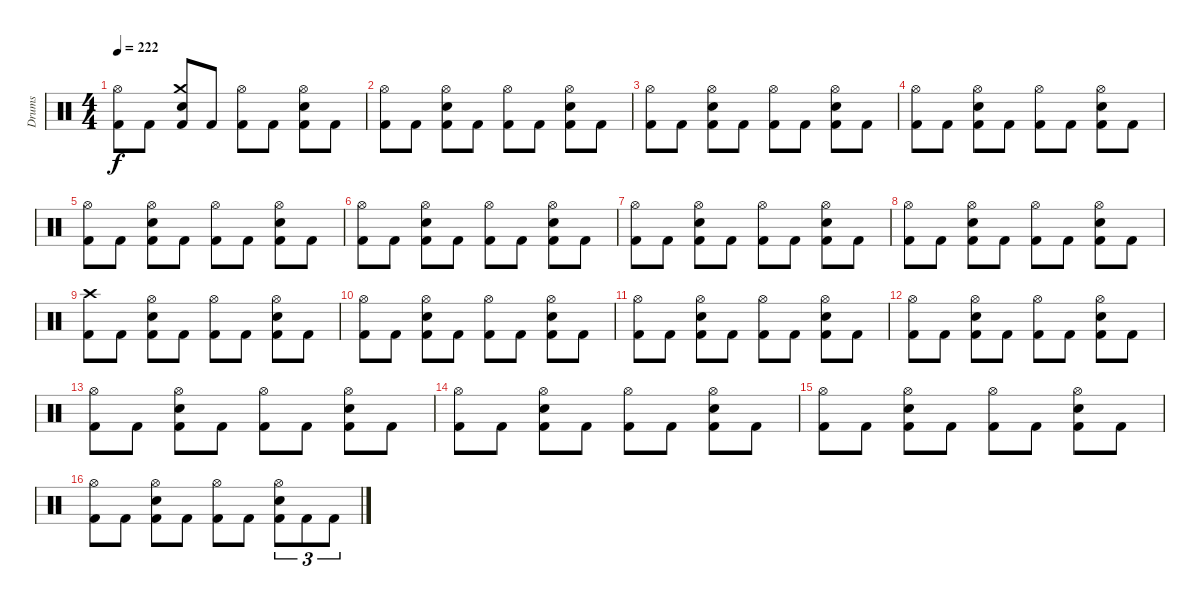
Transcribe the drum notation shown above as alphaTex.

\track ("Drums" "Drums") {instrument percussion}
\staff {score}
\articulation defaults
\ts (4 4)
\tempo 222
\clef neutral
\ks c
("Hi-Hat (open)" "Kick (hit) 2").8{dy f} "Kick (hit) 2".8 ("Crash medium (hit)" "Electric Snare (hit)" "Kick (hit) 2").8 "Kick (hit) 2".8 ("Hi-Hat (open)" "Kick (hit) 2").8 "Kick (hit) 2".8 ("Hi-Hat (open)" "Electric Snare (hit)" "Kick (hit) 2").8 "Kick (hit) 2".8 |
("Hi-Hat (open)" "Kick (hit) 2").8 "Kick (hit) 2".8 ("Hi-Hat (open)" "Electric Snare (hit)" "Kick (hit) 2").8 "Kick (hit) 2".8 ("Hi-Hat (open)" "Kick (hit) 2").8 "Kick (hit) 2".8 ("Hi-Hat (open)" "Electric Snare (hit)" "Kick (hit) 2").8 "Kick (hit) 2".8 |
("Hi-Hat (open)" "Kick (hit) 2").8 "Kick (hit) 2".8 ("Hi-Hat (open)" "Electric Snare (hit)" "Kick (hit) 2").8 "Kick (hit) 2".8 ("Hi-Hat (open)" "Kick (hit) 2").8 "Kick (hit) 2".8 ("Hi-Hat (open)" "Electric Snare (hit)" "Kick (hit) 2").8 "Kick (hit) 2".8 |
("Hi-Hat (open)" "Kick (hit) 2").8 "Kick (hit) 2".8 ("Hi-Hat (open)" "Electric Snare (hit)" "Kick (hit) 2").8 "Kick (hit) 2".8 ("Hi-Hat (open)" "Kick (hit) 2").8 "Kick (hit) 2".8 ("Hi-Hat (open)" "Electric Snare (hit)" "Kick (hit) 2").8 "Kick (hit) 2".8 |
("Hi-Hat (open)" "Kick (hit) 2").8 "Kick (hit) 2".8 ("Hi-Hat (open)" "Electric Snare (hit)" "Kick (hit) 2").8 "Kick (hit) 2".8 ("Hi-Hat (open)" "Kick (hit) 2").8 "Kick (hit) 2".8 ("Hi-Hat (open)" "Electric Snare (hit)" "Kick (hit) 2").8 "Kick (hit) 2".8 |
("Hi-Hat (open)" "Kick (hit) 2").8 "Kick (hit) 2".8 ("Hi-Hat (open)" "Electric Snare (hit)" "Kick (hit) 2").8 "Kick (hit) 2".8 ("Hi-Hat (open)" "Kick (hit) 2").8 "Kick (hit) 2".8 ("Hi-Hat (open)" "Electric Snare (hit)" "Kick (hit) 2").8 "Kick (hit) 2".8 |
("Hi-Hat (open)" "Kick (hit) 2").8 "Kick (hit) 2".8 ("Hi-Hat (open)" "Electric Snare (hit)" "Kick (hit) 2").8 "Kick (hit) 2".8 ("Hi-Hat (open)" "Kick (hit) 2").8 "Kick (hit) 2".8 ("Hi-Hat (open)" "Electric Snare (hit)" "Kick (hit) 2").8 "Kick (hit) 2".8 |
("Hi-Hat (open)" "Kick (hit) 2").8 "Kick (hit) 2".8 ("Hi-Hat (open)" "Electric Snare (hit)" "Kick (hit) 2").8 "Kick (hit) 2".8 ("Hi-Hat (open)" "Kick (hit) 2").8 "Kick (hit) 2".8 ("Hi-Hat (open)" "Electric Snare (hit)" "Kick (hit) 2").8 "Kick (hit) 2".8 |
("Crash high (hit)" "Kick (hit) 2").8 "Kick (hit) 2".8 ("Hi-Hat (open)" "Electric Snare (hit)" "Kick (hit) 2").8 "Kick (hit) 2".8 ("Hi-Hat (open)" "Kick (hit) 2").8 "Kick (hit) 2".8 ("Hi-Hat (open)" "Electric Snare (hit)" "Kick (hit) 2").8 "Kick (hit) 2".8 |
("Hi-Hat (open)" "Kick (hit) 2").8 "Kick (hit) 2".8 ("Hi-Hat (open)" "Electric Snare (hit)" "Kick (hit) 2").8 "Kick (hit) 2".8 ("Hi-Hat (open)" "Kick (hit) 2").8 "Kick (hit) 2".8 ("Hi-Hat (open)" "Electric Snare (hit)" "Kick (hit) 2").8 "Kick (hit) 2".8 |
("Hi-Hat (open)" "Kick (hit) 2").8 "Kick (hit) 2".8 ("Hi-Hat (open)" "Electric Snare (hit)" "Kick (hit) 2").8 "Kick (hit) 2".8 ("Hi-Hat (open)" "Kick (hit) 2").8 "Kick (hit) 2".8 ("Hi-Hat (open)" "Electric Snare (hit)" "Kick (hit) 2").8 "Kick (hit) 2".8 |
("Hi-Hat (open)" "Kick (hit) 2").8 "Kick (hit) 2".8 ("Hi-Hat (open)" "Electric Snare (hit)" "Kick (hit) 2").8 "Kick (hit) 2".8 ("Hi-Hat (open)" "Kick (hit) 2").8 "Kick (hit) 2".8 ("Hi-Hat (open)" "Electric Snare (hit)" "Kick (hit) 2").8 "Kick (hit) 2".8 |
("Hi-Hat (open)" "Kick (hit) 2").8 "Kick (hit) 2".8 ("Hi-Hat (open)" "Electric Snare (hit)" "Kick (hit) 2").8 "Kick (hit) 2".8 ("Hi-Hat (open)" "Kick (hit) 2").8 "Kick (hit) 2".8 ("Hi-Hat (open)" "Electric Snare (hit)" "Kick (hit) 2").8 "Kick (hit) 2".8 |
("Hi-Hat (open)" "Kick (hit) 2").8 "Kick (hit) 2".8 ("Hi-Hat (open)" "Electric Snare (hit)" "Kick (hit) 2").8 "Kick (hit) 2".8 ("Hi-Hat (open)" "Kick (hit) 2").8 "Kick (hit) 2".8 ("Hi-Hat (open)" "Electric Snare (hit)" "Kick (hit) 2").8 "Kick (hit) 2".8 |
("Hi-Hat (open)" "Kick (hit) 2").8 "Kick (hit) 2".8 ("Hi-Hat (open)" "Electric Snare (hit)" "Kick (hit) 2").8 "Kick (hit) 2".8 ("Hi-Hat (open)" "Kick (hit) 2").8 "Kick (hit) 2".8 ("Hi-Hat (open)" "Electric Snare (hit)" "Kick (hit) 2").8 "Kick (hit) 2".8 |
("Hi-Hat (open)" "Kick (hit) 2").8 "Kick (hit) 2".8 ("Hi-Hat (open)" "Electric Snare (hit)" "Kick (hit) 2").8 "Kick (hit) 2".8 ("Hi-Hat (open)" "Kick (hit) 2").8 "Kick (hit) 2".8 ("Hi-Hat (open)" "Electric Snare (hit)" "Kick (hit) 2").8{tu (3 2)} "Kick (hit) 2".8{tu (3 2)} "Kick (hit) 2".8{tu (3 2)}
